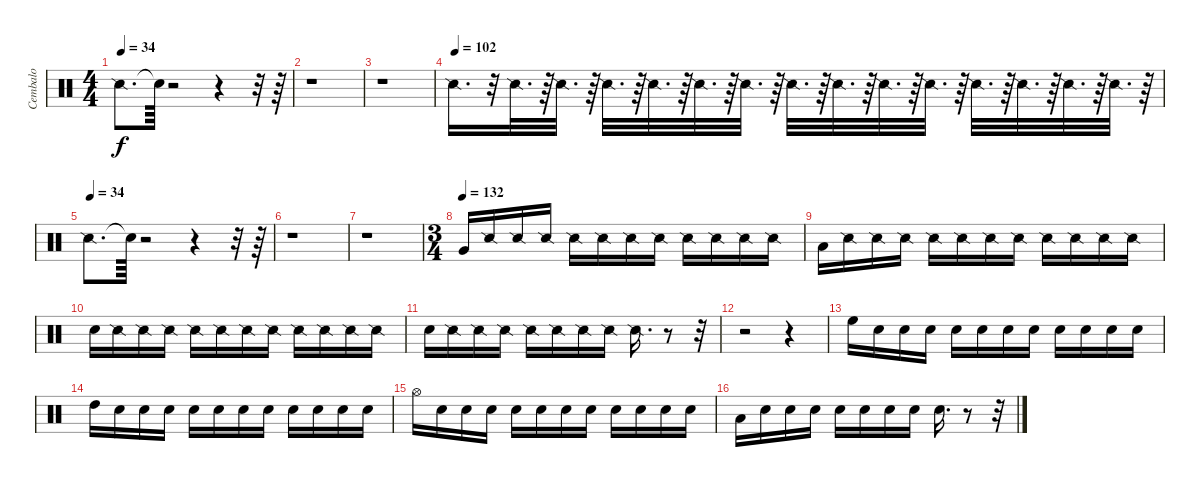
\track ("Cembalo" "Cembalo") {instrument percussion}
\staff {score}
\articulation defaults
\ts (4 4)
\tempo 34
\clef neutral
\ks c "Snare (side stick) 2".8{d dy f} "Snare (hit)"{t}.64
r.2 r.4 r.32 r.64 |
r.1 |
r.1 |
\tempo (102)
"Snare (side stick) 2".16{d} r.32 "Snare (side stick) 2".32{d} r.64 "Snare (side stick) 2".32{d} r.64 "Snare (side stick) 2".32{d} r.64 "Snare (side stick) 2".32{d} r.64 "Snare (side stick) 2".32{d} r.64 "Snare (side stick) 2".32{d} r.64 "Snare (side stick) 2".32{d} r.64 "Snare (side stick) 2".32{d} r.64 "Snare (side stick) 2".32{d} r.64 "Snare (side stick) 2".32{d} r.64 "Snare (side stick) 2".32{d} r.64 "Snare (side stick) 2".32{d} r.64 "Snare (side stick) 2".32{d} r.64 "Snare (side stick) 2".32{d} r.64 |
\tempo (34)
"Snare (side stick) 2".8{d} "Snare (hit)"{t}.64 r.2 r.4 r.32 r.64 |
r.1 |
r.1 |
\ts (3 4)
\tempo (132)
"Very Low Tom (hit)".16 "Snare (side stick) 2".16 "Snare (side stick) 2".16 "Snare (side stick) 2".16 "Snare (side stick) 2".16 "Snare (side stick) 2".16 "Snare (side stick) 2".16 "Snare (side stick) 2".16 "Snare (side stick) 2".16 "Snare (side stick) 2".16 "Snare (side stick) 2".16 "Snare (side stick) 2".16 |
"Low Floor Tom (hit)".16 "Snare (side stick) 2".16 "Snare (side stick) 2".16 "Snare (side stick) 2".16 "Snare (side stick) 2".16 "Snare (side stick) 2".16 "Snare (side stick) 2".16 "Snare (side stick) 2".16 "Snare (side stick) 2".16 "Snare (side stick) 2".16 "Snare (side stick) 2".16 "Snare (side stick) 2".16 |
"Hand Clap (hit)".16 "Snare (side stick) 2".16 "Snare (side stick) 2".16 "Snare (side stick) 2".16 "Snare (side stick) 2".16 "Snare (side stick) 2".16 "Snare (side stick) 2".16 "Snare (side stick) 2".16 "Snare (side stick) 2".16 "Snare (side stick) 2".16 "Snare (side stick) 2".16 "Snare (side stick) 2".16 |
"Snare (hit) 2".16 "Snare (side stick) 2".16 "Snare (side stick) 2".16 "Snare (side stick) 2".16 "Snare (side stick) 2".16 "Snare (side stick) 2".16 "Snare (side stick) 2".16 "Snare (side stick) 2".16 "Snare (side stick) 2".16{d} r.8 r.32 |
r.2 r.4 |
"High Floor Tom (hit)".16 "Snare (hit) 2".16 "Snare (hit) 2".16 "Snare (hit) 2".16 "Snare (hit) 2".16 "Snare (hit) 2".16 "Snare (hit) 2".16 "Snare (hit) 2".16 "Snare (hit) 2".16 "Snare (hit) 2".16 "Snare (hit) 2".16 "Snare (hit) 2".16 |
"High Tom (hit)".16 "Snare (hit) 2".16 "Snare (hit) 2".16 "Snare (hit) 2".16 "Snare (hit) 2".16 "Snare (hit) 2".16 "Snare (hit) 2".16 "Snare (hit) 2".16 "Snare (hit) 2".16 "Snare (hit) 2".16 "Snare (hit) 2".16 "Snare (hit) 2".16 |
"Hi-Hat (open)".16 "Snare (hit) 2".16 "Snare (hit) 2".16 "Snare (hit) 2".16 "Snare (hit) 2".16 "Snare (hit) 2".16 "Snare (hit) 2".16 "Snare (hit) 2".16 "Snare (hit) 2".16 "Snare (hit) 2".16 "Snare (hit) 2".16 "Snare (hit) 2".16 |
"Low Tom (hit)".16 "Snare (hit) 2".16 "Snare (hit) 2".16 "Snare (hit) 2".16 "Snare (hit) 2".16 "Snare (hit) 2".16 "Snare (hit) 2".16 "Snare (hit) 2".16 "Snare (hit) 2".16{d} r.8 r.32
